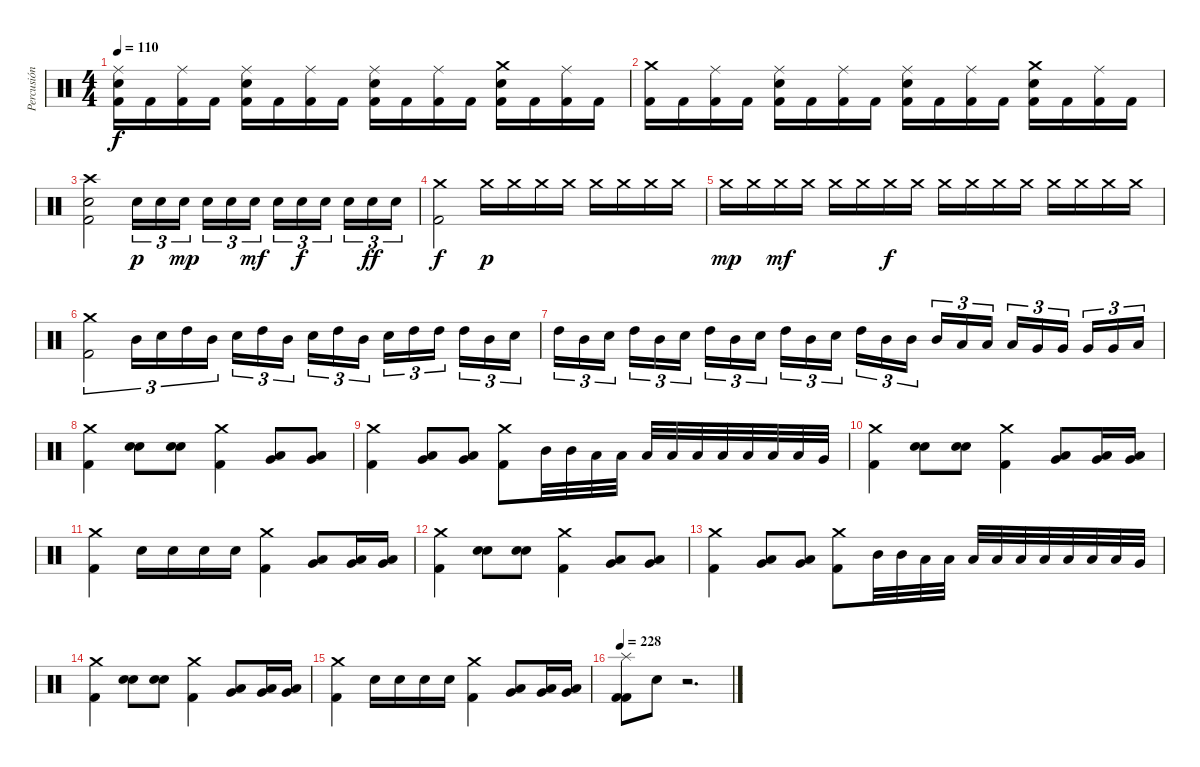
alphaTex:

\track ("Percusión" "Percusión") {instrument percussion}
\staff {score}
\articulation defaults
\ts (4 4)
\tempo 110
\clef neutral
\ks c
("Electric Snare (hit)" "Ride (middle)" "Kick (hit) 2").16{dy f} "Kick (hit) 2".16 ("Ride (middle)" "Kick (hit) 2").16 "Kick (hit) 2".16 ("Electric Snare (hit)" "Ride (middle)" "Kick (hit) 2").16 "Kick (hit) 2".16 ("Ride (middle)" "Kick (hit) 2").16 "Kick (hit) 2".16 ("Electric Snare (hit)" "Ride (middle)" "Kick (hit) 2").16 "Kick (hit) 2".16 ("Ride (middle)" "Kick (hit) 2").16 "Kick (hit) 2".16 ("Electric Snare (hit)" "Crash medium (hit)" "Kick (hit) 2").16 "Kick (hit) 2".16 ("Ride (middle)" "Kick (hit) 2").16 "Kick (hit) 2".16 |
("Crash medium (hit)" "Kick (hit) 2").16 "Kick (hit) 2".16 ("Ride (middle)" "Kick (hit) 2").16 "Kick (hit) 2".16 ("Electric Snare (hit)" "Ride (middle)" "Kick (hit) 2").16 "Kick (hit) 2".16 ("Ride (middle)" "Kick (hit) 2").16 "Kick (hit) 2".16 ("Electric Snare (hit)" "Ride (middle)" "Kick (hit) 2").16 "Kick (hit) 2".16 ("Ride (middle)" "Kick (hit) 2").16 "Kick (hit) 2".16 ("Electric Snare (hit)" "Crash medium (hit)" "Kick (hit) 2").16 "Kick (hit) 2".16 ("Ride (middle)" "Kick (hit) 2").16 "Kick (hit) 2".16 |
("Electric Snare (hit)" "Crash high (hit)" "Kick (hit) 2").2 "Electric Snare (hit)".16{tu (3 2) dy p} "Electric Snare (hit)".16{tu (3 2)} "Electric Snare (hit)".16{tu (3 2) dy mp beam splitsecondary} "Electric Snare (hit)".16{tu (3 2)} "Electric Snare (hit)".16{tu (3 2)} "Electric Snare (hit)".16{tu (3 2) dy mf} "Electric Snare (hit)".16{tu (3 2)} "Electric Snare (hit)".16{tu (3 2) dy f} "Electric Snare (hit)".16{tu (3 2) beam splitsecondary} "Electric Snare (hit)".16{tu (3 2)} "Electric Snare (hit)".16{tu (3 2) dy ff} "Electric Snare (hit)".16{tu (3 2)} |
("Kick (hit) 2" "Crash medium (hit)").2{dy f} "Crash medium (hit)".16{dy p} "Crash medium (hit)".16 "Crash medium (hit)".16 "Crash medium (hit)".16 "Crash medium (hit)".16 "Crash medium (hit)".16 "Crash medium (hit)".16 "Crash medium (hit)".16 |
"Crash medium (hit)".16{dy mp} "Crash medium (hit)".16 "Crash medium (hit)".16{dy mf} "Crash medium (hit)".16 "Crash medium (hit)".16 "Crash medium (hit)".16 "Crash medium (hit)".16{dy f} "Crash medium (hit)".16 "Crash medium (hit)".16 "Crash medium (hit)".16 "Crash medium (hit)".16 "Crash medium (hit)".16 "Crash medium (hit)".16 "Crash medium (hit)".16 "Crash medium (hit)".16 "Crash medium (hit)".16 |
("Kick (hit) 2" "Crash medium (hit)").2{tu (3 2)} "Mid Tom (hit)".16{tu (3 2)} "Electric Snare (hit)".16{tu (3 2)} "High Tom (hit)".16{tu (3 2)} "Mid Tom (hit)".16{tu (3 2)} "Electric Snare (hit)".16{tu (3 2)} "High Tom (hit)".16{tu (3 2)} "Mid Tom (hit)".16{tu (3 2) beam splitsecondary} "Electric Snare (hit)".16{tu (3 2)} "High Tom (hit)".16{tu (3 2)} "Mid Tom (hit)".16{tu (3 2)} "Electric Snare (hit)".16{tu (3 2)} "High Tom (hit)".16{tu (3 2)} "High Tom (hit)".16{tu (3 2) beam splitsecondary} "High Tom (hit)".16{tu (3 2)} "Mid Tom (hit)".16{tu (3 2)} "Electric Snare (hit)".16{tu (3 2)} |
"High Tom (hit)".16{tu (3 2)} "Mid Tom (hit)".16{tu (3 2)} "Electric Snare (hit)".16{tu (3 2) beam splitsecondary} "High Tom (hit)".16{tu (3 2)} "Mid Tom (hit)".16{tu (3 2)} "Electric Snare (hit)".16{tu (3 2)} "High Tom (hit)".16{tu (3 2)} "Mid Tom (hit)".16{tu (3 2)} "Electric Snare (hit)".16{tu (3 2) beam splitsecondary} "High Tom (hit)".16{tu (3 2)} "Mid Tom (hit)".16{tu (3 2)} "Electric Snare (hit)".16{tu (3 2)} "High Tom (hit)".16{tu (3 2)} "Mid Tom (hit)".16{tu (3 2)} "Mid Tom (hit)".16{tu (3 2) beam splitsecondary} "Mid Tom (hit)".16{tu (3 2)} "Low Tom (hit)".16{tu (3 2)} "Low Tom (hit)".16{tu (3 2)} "Low Tom (hit)".16{tu (3 2)} "Very Low Tom (hit)".16{tu (3 2)} "Very Low Tom (hit)".16{tu (3 2) beam splitsecondary} "Very Low Tom (hit)".16{tu (3 2)} "Very Low Tom (hit)".16{tu (3 2)} "Low Floor Tom (hit)".16{tu (3 2)} |
("Crash medium (hit)" "Kick (hit) 2").4 ("Electric Snare (hit)" "Electric Snare (hit)").8 ("Electric Snare (hit)" "Electric Snare (hit)").8 ("Crash medium (hit)" "Kick (hit) 2").4 ("Low Tom (hit)" "Very Low Tom (hit)").8 ("Low Tom (hit)" "Very Low Tom (hit)").8 |
("Crash medium (hit)" "Kick (hit) 2").4 ("Low Tom (hit)" "Very Low Tom (hit)").8 ("Low Tom (hit)" "Very Low Tom (hit)").8 ("Kick (hit) 2" "Crash medium (hit)").8 "Mid Tom (hit)".32 "Mid Tom (hit)".32 "Low Tom (hit)".32 "Low Tom (hit)".32 "Low Tom (hit)".32 "Low Tom (hit)".32 "Low Tom (hit)".32 "Low Tom (hit)".32 "Low Tom (hit)".32 "Low Tom (hit)".32 "Low Tom (hit)".32 "Very Low Tom (hit)".32 |
("Crash medium (hit)" "Kick (hit) 2").4 ("Electric Snare (hit)" "Electric Snare (hit)").8 ("Electric Snare (hit)" "Electric Snare (hit)").8 ("Crash medium (hit)" "Kick (hit) 2").4 ("Low Tom (hit)" "Very Low Tom (hit)").8 ("Low Tom (hit)" "Very Low Tom (hit)").16 ("Low Tom (hit)" "Very Low Tom (hit)").16 |
("Crash medium (hit)" "Kick (hit) 2").4 "Electric Snare (hit)".16 "Electric Snare (hit)".16 "Electric Snare (hit)".16 "Electric Snare (hit)".16 ("Kick (hit) 2" "Crash medium (hit)").4 ("Low Tom (hit)" "Very Low Tom (hit)").8 ("Low Tom (hit)" "Very Low Tom (hit)").16 ("Low Tom (hit)" "Very Low Tom (hit)").16 |
("Crash medium (hit)" "Kick (hit) 2").4 ("Electric Snare (hit)" "Electric Snare (hit)").8 ("Electric Snare (hit)" "Electric Snare (hit)").8 ("Crash medium (hit)" "Kick (hit) 2").4 ("Low Tom (hit)" "Very Low Tom (hit)").8 ("Low Tom (hit)" "Very Low Tom (hit)").8 |
("Crash medium (hit)" "Kick (hit) 2").4 ("Low Tom (hit)" "Very Low Tom (hit)").8 ("Low Tom (hit)" "Very Low Tom (hit)").8 ("Kick (hit) 2" "Crash medium (hit)").8 "Mid Tom (hit)".32 "Mid Tom (hit)".32 "Low Tom (hit)".32 "Low Tom (hit)".32 "Low Tom (hit)".32 "Low Tom (hit)".32 "Low Tom (hit)".32 "Low Tom (hit)".32 "Low Tom (hit)".32 "Low Tom (hit)".32 "Low Tom (hit)".32 "Very Low Tom (hit)".32 |
("Crash medium (hit)" "Kick (hit) 2").4 ("Electric Snare (hit)" "Electric Snare (hit)").8 ("Electric Snare (hit)" "Electric Snare (hit)").8 ("Crash medium (hit)" "Kick (hit) 2").4 ("Low Tom (hit)" "Very Low Tom (hit)").8 ("Low Tom (hit)" "Very Low Tom (hit)").16 ("Low Tom (hit)" "Very Low Tom (hit)").16 |
("Crash medium (hit)" "Kick (hit) 2").4 "Electric Snare (hit)".16 "Electric Snare (hit)".16 "Electric Snare (hit)".16 "Electric Snare (hit)".16 ("Kick (hit) 2" "Crash medium (hit)").4 ("Low Tom (hit)" "Very Low Tom (hit)").8 ("Low Tom (hit)" "Very Low Tom (hit)").16 ("Low Tom (hit)" "Very Low Tom (hit)").16 |
\tempo 228
("Kick (hit) 2" "Splash (hit)" "Kick (hit) 2").8 "Snare (hit)"{x}.8 r.2{d}
